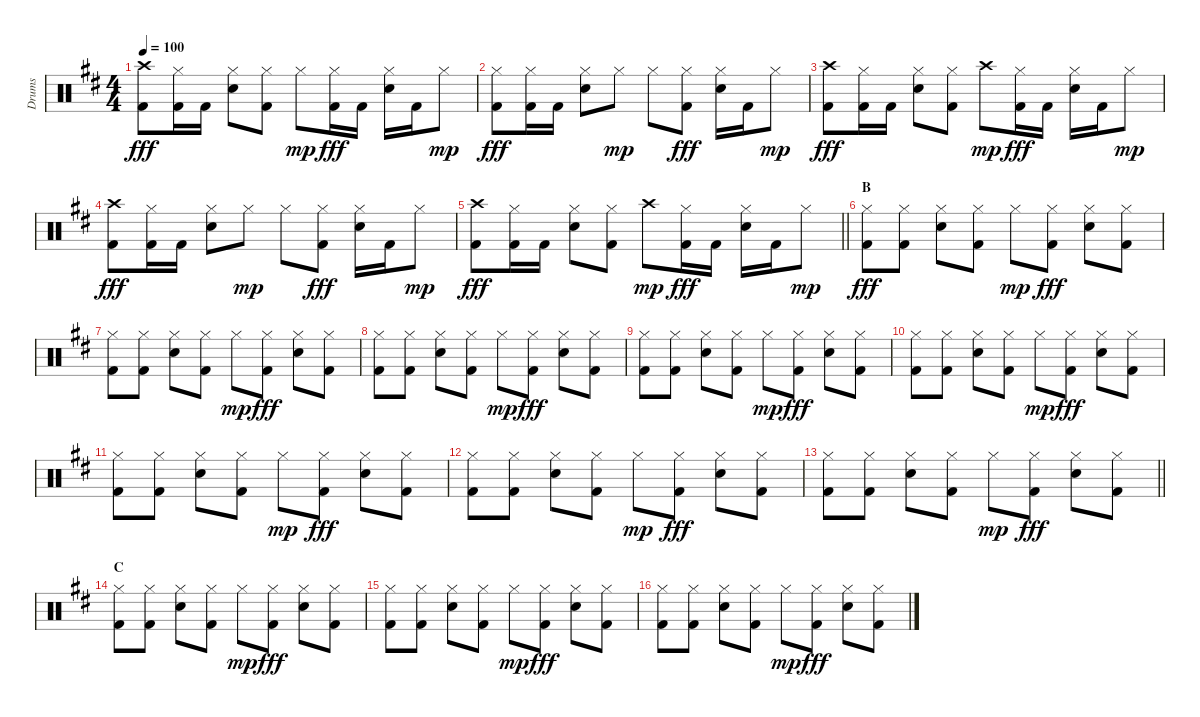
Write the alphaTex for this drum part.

\track ("Drums" "Drums") {instrument percussion}
\staff
\articulation defaults
\ts (4 4)
\tempo 100
\clef neutral
\ks bminor
("Crash high (hit)" "Kick (hit) 2").8{dy fff} ("Hi-Hat (closed)" "Kick (hit) 2").16 "Kick (hit) 2".16 ("Hi-Hat (closed)" "Electric Snare (hit)").8 ("Hi-Hat (closed)" "Kick (hit) 2").8 "Hi-Hat (closed)".8{dy mp} ("Hi-Hat (closed)" "Kick (hit) 2").16{dy fff} "Kick (hit) 2".16 ("Hi-Hat (closed)" "Electric Snare (hit)").16 "Kick (hit) 2".16 "Hi-Hat (closed)".8{dy mp} |
("Hi-Hat (closed)" "Kick (hit) 2").8{dy fff} ("Hi-Hat (closed)" "Kick (hit) 2").16 "Kick (hit) 2".16 ("Hi-Hat (closed)" "Electric Snare (hit)").8 "Hi-Hat (closed)".8{dy mp} "Hi-Hat (closed)".8 ("Hi-Hat (closed)" "Kick (hit) 2").8{dy fff} ("Hi-Hat (closed)" "Electric Snare (hit)").16 "Kick (hit) 2".16 "Hi-Hat (closed)".8{dy mp} |
("Crash high (hit)" "Kick (hit) 2").8{dy fff} ("Hi-Hat (closed)" "Kick (hit) 2").16 "Kick (hit) 2".16 ("Hi-Hat (closed)" "Electric Snare (hit)").8 ("Hi-Hat (closed)" "Kick (hit) 2").8 "Crash high (hit)".8{dy mp} ("Hi-Hat (closed)" "Kick (hit) 2").16{dy fff} "Kick (hit) 2".16 ("Hi-Hat (closed)" "Electric Snare (hit)").16 "Kick (hit) 2".16 "Hi-Hat (closed)".8{dy mp} |
("Crash high (hit)" "Kick (hit) 2").8{dy fff} ("Hi-Hat (closed)" "Kick (hit) 2").16 "Kick (hit) 2".16 ("Hi-Hat (closed)" "Electric Snare (hit)").8 "Hi-Hat (closed)".8{dy mp} "Hi-Hat (closed)".8 ("Hi-Hat (closed)" "Kick (hit) 2").8{dy fff} ("Hi-Hat (closed)" "Electric Snare (hit)").16 "Kick (hit) 2".16 "Hi-Hat (closed)".8{dy mp} |
\barLineRight lightlight
("Crash high (hit)" "Kick (hit) 2").8{dy fff} ("Hi-Hat (closed)" "Kick (hit) 2").16 "Kick (hit) 2".16 ("Hi-Hat (closed)" "Electric Snare (hit)").8 ("Hi-Hat (closed)" "Kick (hit) 2").8 "Crash high (hit)".8{dy mp} ("Hi-Hat (closed)" "Kick (hit) 2").16{dy fff} "Kick (hit) 2".16 ("Hi-Hat (closed)" "Electric Snare (hit)").16 "Kick (hit) 2".16 "Hi-Hat (closed)".8{dy mp} |
\section ("" "B")
("Hi-Hat (closed)" "Kick (hit) 2").8{dy fff} ("Hi-Hat (closed)" "Kick (hit) 2").8 ("Hi-Hat (closed)" "Electric Snare (hit)").8 ("Hi-Hat (closed)" "Kick (hit) 2").8 "Hi-Hat (closed)".8{dy mp} ("Hi-Hat (closed)" "Kick (hit) 2").8{dy fff} ("Hi-Hat (closed)" "Electric Snare (hit)").8 ("Hi-Hat (closed)" "Kick (hit) 2").8 |
("Hi-Hat (closed)" "Kick (hit) 2").8 ("Hi-Hat (closed)" "Kick (hit) 2").8 ("Hi-Hat (closed)" "Electric Snare (hit)").8 ("Hi-Hat (closed)" "Kick (hit) 2").8 "Hi-Hat (closed)".8{dy mp} ("Hi-Hat (closed)" "Kick (hit) 2").8{dy fff} ("Hi-Hat (closed)" "Electric Snare (hit)").8 ("Hi-Hat (closed)" "Kick (hit) 2").8 |
("Hi-Hat (closed)" "Kick (hit) 2").8 ("Hi-Hat (closed)" "Kick (hit) 2").8 ("Hi-Hat (closed)" "Electric Snare (hit)").8 ("Hi-Hat (closed)" "Kick (hit) 2").8 "Hi-Hat (closed)".8{dy mp} ("Hi-Hat (closed)" "Kick (hit) 2").8{dy fff} ("Hi-Hat (closed)" "Electric Snare (hit)").8 ("Hi-Hat (closed)" "Kick (hit) 2").8 |
("Hi-Hat (closed)" "Kick (hit) 2").8 ("Hi-Hat (closed)" "Kick (hit) 2").8 ("Hi-Hat (closed)" "Electric Snare (hit)").8 ("Hi-Hat (closed)" "Kick (hit) 2").8 "Hi-Hat (closed)".8{dy mp} ("Hi-Hat (closed)" "Kick (hit) 2").8{dy fff} ("Hi-Hat (closed)" "Electric Snare (hit)").8 ("Hi-Hat (closed)" "Kick (hit) 2").8 |
("Hi-Hat (closed)" "Kick (hit) 2").8 ("Hi-Hat (closed)" "Kick (hit) 2").8 ("Hi-Hat (closed)" "Electric Snare (hit)").8 ("Hi-Hat (closed)" "Kick (hit) 2").8 "Hi-Hat (closed)".8{dy mp} ("Hi-Hat (closed)" "Kick (hit) 2").8{dy fff} ("Hi-Hat (closed)" "Electric Snare (hit)").8 ("Hi-Hat (closed)" "Kick (hit) 2").8 |
("Hi-Hat (closed)" "Kick (hit) 2").8 ("Hi-Hat (closed)" "Kick (hit) 2").8 ("Hi-Hat (closed)" "Electric Snare (hit)").8 ("Hi-Hat (closed)" "Kick (hit) 2").8 "Hi-Hat (closed)".8{dy mp} ("Hi-Hat (closed)" "Kick (hit) 2").8{dy fff} ("Hi-Hat (closed)" "Electric Snare (hit)").8 ("Hi-Hat (closed)" "Kick (hit) 2").8 |
("Hi-Hat (closed)" "Kick (hit) 2").8 ("Hi-Hat (closed)" "Kick (hit) 2").8 ("Hi-Hat (closed)" "Electric Snare (hit)").8 ("Hi-Hat (closed)" "Kick (hit) 2").8 "Hi-Hat (closed)".8{dy mp} ("Hi-Hat (closed)" "Kick (hit) 2").8{dy fff} ("Hi-Hat (closed)" "Electric Snare (hit)").8 ("Hi-Hat (closed)" "Kick (hit) 2").8 |
\barLineRight lightlight
("Hi-Hat (closed)" "Kick (hit) 2").8 ("Hi-Hat (closed)" "Kick (hit) 2").8 ("Hi-Hat (closed)" "Electric Snare (hit)").8 ("Hi-Hat (closed)" "Kick (hit) 2").8 "Hi-Hat (closed)".8{dy mp} ("Hi-Hat (closed)" "Kick (hit) 2").8{dy fff} ("Hi-Hat (closed)" "Electric Snare (hit)").8 ("Hi-Hat (closed)" "Kick (hit) 2").8 |
\section ("" "C")
("Hi-Hat (closed)" "Kick (hit) 2").8 ("Hi-Hat (closed)" "Kick (hit) 2").8 ("Hi-Hat (closed)" "Electric Snare (hit)").8 ("Hi-Hat (closed)" "Kick (hit) 2").8 "Hi-Hat (closed)".8{dy mp} ("Hi-Hat (closed)" "Kick (hit) 2").8{dy fff} ("Hi-Hat (closed)" "Electric Snare (hit)").8 ("Hi-Hat (closed)" "Kick (hit) 2").8 |
("Hi-Hat (closed)" "Kick (hit) 2").8 ("Hi-Hat (closed)" "Kick (hit) 2").8 ("Hi-Hat (closed)" "Electric Snare (hit)").8 ("Hi-Hat (closed)" "Kick (hit) 2").8 "Hi-Hat (closed)".8{dy mp} ("Hi-Hat (closed)" "Kick (hit) 2").8{dy fff} ("Hi-Hat (closed)" "Electric Snare (hit)").8 ("Hi-Hat (closed)" "Kick (hit) 2").8 |
("Hi-Hat (closed)" "Kick (hit) 2").8 ("Hi-Hat (closed)" "Kick (hit) 2").8 ("Hi-Hat (closed)" "Electric Snare (hit)").8 ("Hi-Hat (closed)" "Kick (hit) 2").8 "Hi-Hat (closed)".8{dy mp} ("Hi-Hat (closed)" "Kick (hit) 2").8{dy fff} ("Hi-Hat (closed)" "Electric Snare (hit)").8 ("Hi-Hat (closed)" "Kick (hit) 2").8
